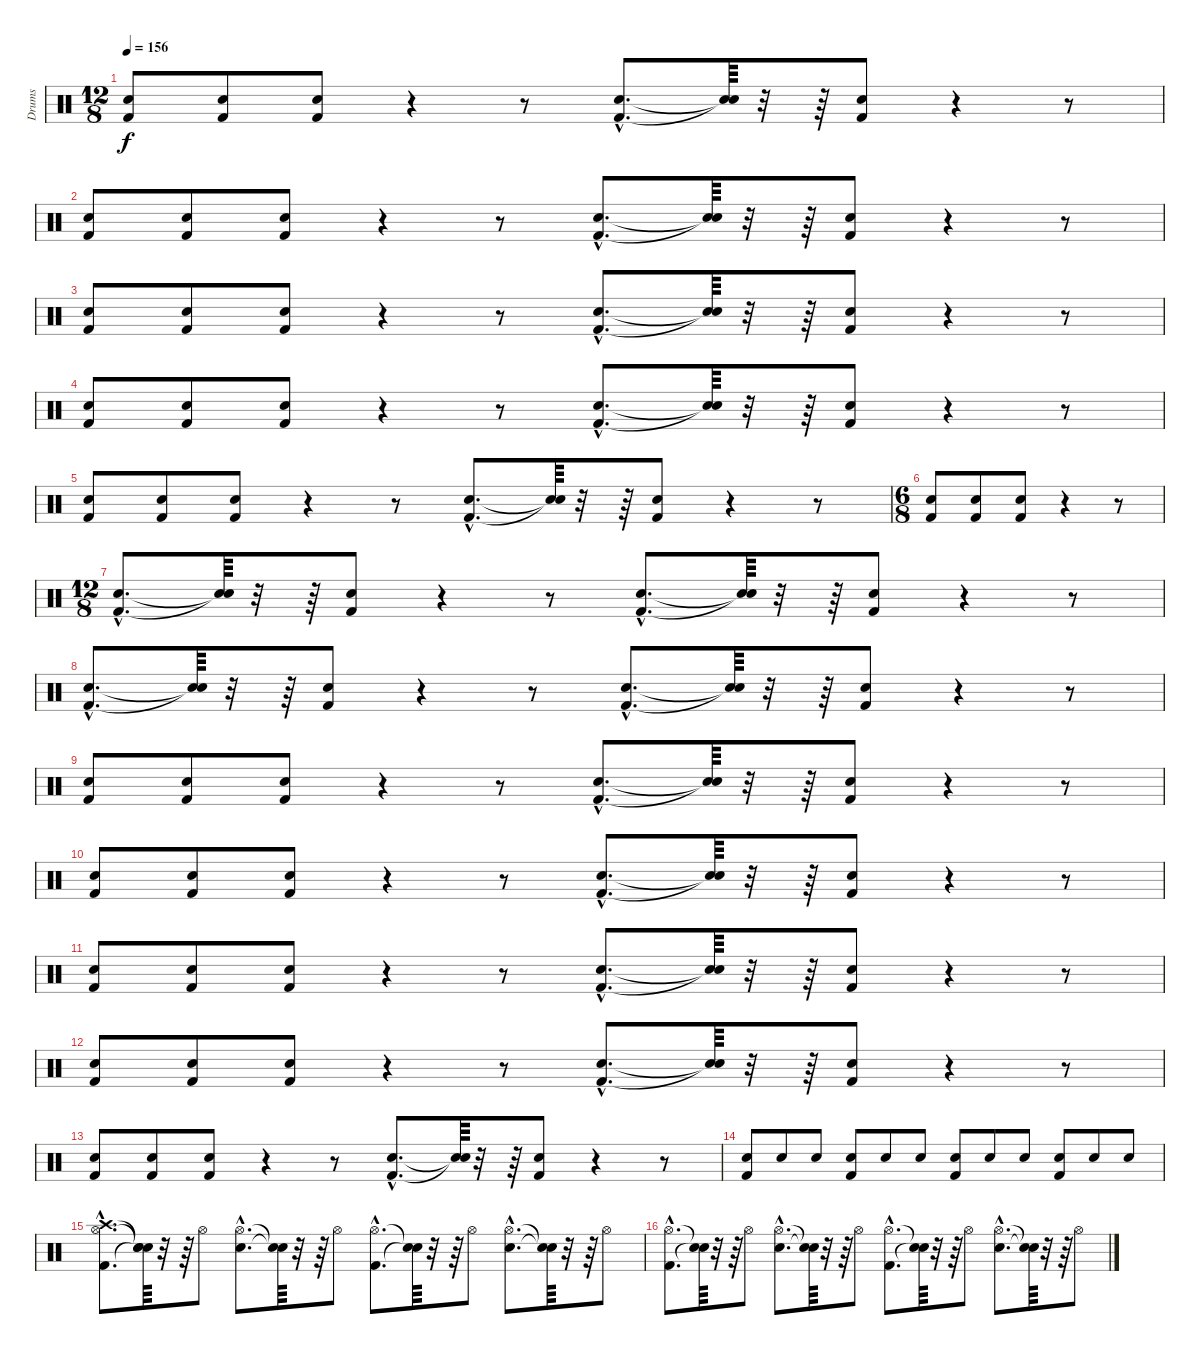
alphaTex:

\track ("Drums" "Drums") {instrument percussion}
\staff {score}
\articulation defaults
\ts (12 8)
\tempo 156
\clef neutral
\ks c
("Kick (hit) 2" "Snare (hit) 2").8{dy f} ("Kick (hit) 2" "Snare (hit) 2").8 ("Kick (hit) 2" "Snare (hit) 2").8 r.4 r.8 ("Kick (hit) 2"{hac} "Snare (hit) 2"{hac}).8{d} ("Snare (hit)"{t} "Snare (hit)"{t}).64 r.32 r.64 ("Kick (hit) 2" "Snare (hit) 2").8 r.4 r.8 |
("Kick (hit) 2" "Snare (hit) 2").8 ("Kick (hit) 2" "Snare (hit) 2").8 ("Kick (hit) 2" "Snare (hit) 2").8 r.4 r.8 ("Kick (hit) 2"{hac} "Snare (hit) 2"{hac}).8{d} ("Snare (hit)"{t} "Snare (hit)"{t}).64 r.32 r.64 ("Kick (hit) 2" "Snare (hit) 2").8 r.4 r.8 |
("Kick (hit) 2" "Snare (hit) 2").8 ("Kick (hit) 2" "Snare (hit) 2").8 ("Kick (hit) 2" "Snare (hit) 2").8 r.4 r.8 ("Kick (hit) 2"{hac} "Snare (hit) 2"{hac}).8{d} ("Snare (hit)"{t} "Snare (hit)"{t}).64 r.32 r.64 ("Kick (hit) 2" "Snare (hit) 2").8 r.4 r.8 |
("Kick (hit) 2" "Snare (hit) 2").8 ("Kick (hit) 2" "Snare (hit) 2").8 ("Kick (hit) 2" "Snare (hit) 2").8 r.4 r.8 ("Kick (hit) 2"{hac} "Snare (hit) 2"{hac}).8{d} ("Snare (hit)"{t} "Snare (hit)"{t}).64 r.32 r.64 ("Kick (hit) 2" "Snare (hit) 2").8 r.4 r.8 |
("Kick (hit) 2" "Snare (hit) 2").8 ("Kick (hit) 2" "Snare (hit) 2").8 ("Kick (hit) 2" "Snare (hit) 2").8 r.4 r.8 ("Kick (hit) 2"{hac} "Snare (hit) 2"{hac}).8{d} ("Snare (hit)"{t} "Snare (hit)"{t}).64 r.32 r.64 ("Kick (hit) 2" "Snare (hit) 2").8 r.4 r.8 |
\ts (6 8)
("Kick (hit) 2" "Snare (hit) 2").8 ("Kick (hit) 2" "Snare (hit) 2").8 ("Kick (hit) 2" "Snare (hit) 2").8 r.4 r.8 |
\ts (12 8)
("Kick (hit) 2"{hac} "Snare (hit) 2"{hac}).8{d} ("Snare (hit)"{t} "Snare (hit)"{t}).64 r.32 r.64 ("Kick (hit) 2" "Snare (hit) 2").8 r.4 r.8 ("Kick (hit) 2"{hac} "Snare (hit) 2"{hac}).8{d} ("Snare (hit)"{t} "Snare (hit)"{t}).64 r.32 r.64 ("Kick (hit) 2" "Snare (hit) 2").8 r.4 r.8 |
("Kick (hit) 2"{hac} "Snare (hit) 2"{hac}).8{d} ("Snare (hit)"{t} "Snare (hit)"{t}).64 r.32 r.64 ("Kick (hit) 2" "Snare (hit) 2").8 r.4 r.8 ("Kick (hit) 2"{hac} "Snare (hit) 2"{hac}).8{d} ("Snare (hit)"{t} "Snare (hit)"{t}).64 r.32 r.64 ("Kick (hit) 2" "Snare (hit) 2").8 r.4 r.8 |
("Kick (hit) 2" "Snare (hit) 2").8 ("Kick (hit) 2" "Snare (hit) 2").8 ("Kick (hit) 2" "Snare (hit) 2").8 r.4 r.8 ("Kick (hit) 2"{hac} "Snare (hit) 2"{hac}).8{d} ("Snare (hit)"{t} "Snare (hit)"{t}).64 r.32 r.64 ("Kick (hit) 2" "Snare (hit) 2").8 r.4 r.8 |
("Kick (hit) 2" "Snare (hit) 2").8 ("Kick (hit) 2" "Snare (hit) 2").8 ("Kick (hit) 2" "Snare (hit) 2").8 r.4 r.8 ("Kick (hit) 2"{hac} "Snare (hit) 2"{hac}).8{d} ("Snare (hit)"{t} "Snare (hit)"{t}).64 r.32 r.64 ("Kick (hit) 2" "Snare (hit) 2").8 r.4 r.8 |
("Kick (hit) 2" "Snare (hit) 2").8 ("Kick (hit) 2" "Snare (hit) 2").8 ("Kick (hit) 2" "Snare (hit) 2").8 r.4 r.8 ("Kick (hit) 2"{hac} "Snare (hit) 2"{hac}).8{d} ("Snare (hit)"{t} "Snare (hit)"{t}).64 r.32 r.64 ("Kick (hit) 2" "Snare (hit) 2").8 r.4 r.8 |
("Kick (hit) 2" "Snare (hit) 2").8 ("Kick (hit) 2" "Snare (hit) 2").8 ("Kick (hit) 2" "Snare (hit) 2").8 r.4 r.8 ("Kick (hit) 2"{hac} "Snare (hit) 2"{hac}).8{d} ("Snare (hit)"{t} "Snare (hit)"{t}).64 r.32 r.64 ("Kick (hit) 2" "Snare (hit) 2").8 r.4 r.8 |
("Kick (hit) 2" "Snare (hit) 2").8 ("Kick (hit) 2" "Snare (hit) 2").8 ("Kick (hit) 2" "Snare (hit) 2").8 r.4 r.8 ("Kick (hit) 2"{hac} "Snare (hit) 2"{hac}).8{d} ("Snare (hit)"{t} "Snare (hit)"{t}).64 r.32 r.64 ("Kick (hit) 2" "Snare (hit) 2").8 r.4 r.8 |
("Kick (hit) 2" "Snare (hit) 2").8 "Snare (hit) 2".8 "Snare (hit) 2".8 ("Kick (hit) 2" "Snare (hit) 2").8 "Snare (hit) 2".8 "Snare (hit) 2".8 ("Kick (hit) 2" "Snare (hit) 2").8 "Snare (hit) 2".8 "Snare (hit) 2".8 ("Kick (hit) 2" "Snare (hit) 2").8 "Snare (hit) 2".8 "Snare (hit) 2".8 |
("Kick (hit) 2"{hac} "Hi-Hat (open)"{hac} "Crash high (hit)"{hac}).8{d} ("Snare (hit)"{t} "Snare (hit)"{t} "Snare (hit)"{t}).64 r.32 r.64 "Hi-Hat (open)".8 ("Snare (hit) 2"{hac} "Hi-Hat (open)"{hac}).8{d} ("Snare (hit)"{t} "Snare (hit)"{t}).64 r.32 r.64 "Hi-Hat (open)".8 ("Kick (hit) 2"{hac} "Hi-Hat (open)"{hac}).8{d} ("Snare (hit)"{t} "Snare (hit)"{t}).64 r.32 r.64 "Hi-Hat (open)".8 ("Snare (hit) 2"{hac} "Hi-Hat (open)"{hac}).8{d} ("Snare (hit)"{t} "Snare (hit)"{t}).64 r.32 r.64 "Hi-Hat (open)".8 |
("Kick (hit) 2"{hac} "Hi-Hat (open)"{hac}).8{d} ("Snare (hit)"{t} "Snare (hit)"{t}).64 r.32 r.64 "Hi-Hat (open)".8 ("Snare (hit) 2"{hac} "Hi-Hat (open)"{hac}).8{d} ("Snare (hit)"{t} "Snare (hit)"{t}).64 r.32 r.64 "Hi-Hat (open)".8 ("Kick (hit) 2"{hac} "Hi-Hat (open)"{hac}).8{d} ("Snare (hit)"{t} "Snare (hit)"{t}).64 r.32 r.64 "Hi-Hat (open)".8 ("Snare (hit) 2"{hac} "Hi-Hat (open)"{hac}).8{d} ("Snare (hit)"{t} "Snare (hit)"{t}).64 r.32 r.64 "Hi-Hat (open)".8
